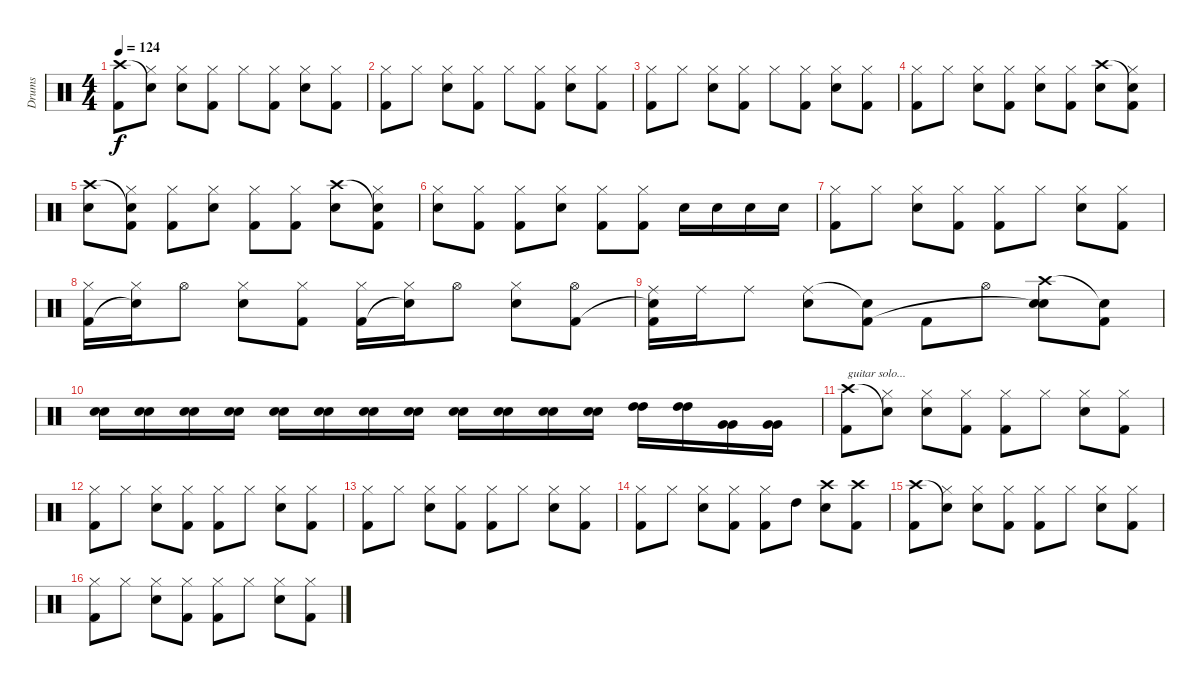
\track ("Drums" "Drums") {instrument percussion}
\staff {score}
\articulation defaults
\ts (4 4)
\tempo 124
\clef neutral
\ks c
("Crash high (hit)" "Kick (hit) 2").8{dy f} ("Snare (hit)"{t} "Hi-Hat (closed)").8 ("Hi-Hat (closed)" "Snare (hit) 2").8 ("Hi-Hat (closed)" "Kick (hit) 2").8 "Hi-Hat (closed)".8 ("Hi-Hat (closed)" "Kick (hit) 2").8 ("Hi-Hat (closed)" "Snare (hit) 2").8 ("Hi-Hat (closed)" "Kick (hit) 2").8 |
("Hi-Hat (closed)" "Kick (hit) 2").8 "Hi-Hat (closed)".8 ("Hi-Hat (closed)" "Snare (hit) 2").8 ("Hi-Hat (closed)" "Kick (hit) 2").8 "Hi-Hat (closed)".8 ("Hi-Hat (closed)" "Kick (hit) 2").8 ("Hi-Hat (closed)" "Snare (hit) 2").8 ("Hi-Hat (closed)" "Kick (hit) 2").8 |
("Hi-Hat (closed)" "Kick (hit) 2").8 "Hi-Hat (closed)".8 ("Hi-Hat (closed)" "Snare (hit) 2").8 ("Hi-Hat (closed)" "Kick (hit) 2").8 "Hi-Hat (closed)".8 ("Hi-Hat (closed)" "Kick (hit) 2").8 ("Hi-Hat (closed)" "Snare (hit) 2").8 ("Hi-Hat (closed)" "Kick (hit) 2").8 |
("Hi-Hat (closed)" "Kick (hit) 2").8 "Hi-Hat (closed)".8 ("Hi-Hat (closed)" "Snare (hit) 2").8 ("Hi-Hat (closed)" "Kick (hit) 2").8 ("Hi-Hat (closed)" "Snare (hit) 2").8 ("Hi-Hat (closed)" "Kick (hit) 2").8 ("Crash high (hit)" "Snare (hit) 2").8 ("Snare (hit)"{t} "Hi-Hat (closed)" "Kick (hit) 2").8 |
("Crash high (hit)" "Snare (hit) 2").8 ("Snare (hit)"{t} "Hi-Hat (closed)" "Kick (hit) 2").8 ("Hi-Hat (closed)" "Kick (hit) 2").8 ("Hi-Hat (closed)" "Snare (hit) 2").8 ("Hi-Hat (closed)" "Kick (hit) 2").8 ("Hi-Hat (closed)" "Kick (hit) 2").8 ("Crash high (hit)" "Snare (hit) 2").8 ("Snare (hit)"{t} "Hi-Hat (closed)" "Kick (hit) 2").8 |
("Hi-Hat (closed)" "Snare (hit) 2").8 ("Hi-Hat (closed)" "Kick (hit) 2").8 ("Hi-Hat (closed)" "Kick (hit) 2").8 ("Hi-Hat (closed)" "Snare (hit) 2").8 ("Hi-Hat (closed)" "Kick (hit) 2").8 ("Hi-Hat (closed)" "Kick (hit) 2").8 "Snare (hit) 2".16 "Snare (hit) 2".16 "Snare (hit) 2".16 "Snare (hit) 2".16 |
("Hi-Hat (closed)" "Kick (hit) 2").8 "Hi-Hat (closed)".8 ("Hi-Hat (closed)" "Snare (hit) 2").8 ("Hi-Hat (closed)" "Kick (hit) 2").8 ("Hi-Hat (closed)" "Kick (hit) 2").8 "Hi-Hat (closed)".8 ("Hi-Hat (closed)" "Snare (hit) 2").8 ("Hi-Hat (closed)" "Kick (hit) 2").8 |
("Hi-Hat (closed)" "Kick (hit) 2").16 ("Hi-Hat (closed)" "Snare (hit)"{t}).16 "Hi-Hat (open)".8 ("Hi-Hat (closed)" "Snare (hit) 2").8 ("Hi-Hat (closed)" "Kick (hit) 2").8 ("Hi-Hat (closed)" "Kick (hit) 2").16 ("Hi-Hat (closed)" "Snare (hit)"{t}).16 "Hi-Hat (open)".8 ("Hi-Hat (closed)" "Snare (hit) 2").8 ("Hi-Hat (open)" "Kick (hit) 2").8 |
("Ride (middle)" "Snare (hit)"{t} "Kick (hit) 2").16 "Ride (middle)".16 "Ride (middle)".8 ("Ride (middle)" "Snare (hit) 2").8 ("Snare (hit)"{t} "Kick (hit) 2").8 "Kick (hit) 2".8 "Hi-Hat (open)".8 ("Crash high (hit)" "Snare (hit)"{t} "Snare (hit) 2").8 ("Snare (hit)"{t} "Kick (hit) 2").8 |
("Snare (hit) 2" "Snare (hit) 2").16 ("Snare (hit) 2" "Snare (hit) 2").16 ("Snare (hit) 2" "Snare (hit) 2").16 ("Snare (hit) 2" "Snare (hit) 2").16 ("Snare (hit) 2" "Snare (hit) 2").16 ("Snare (hit) 2" "Snare (hit) 2").16 ("Snare (hit) 2" "Snare (hit) 2").16 ("Snare (hit) 2" "Snare (hit) 2").16 ("Snare (hit) 2" "Snare (hit) 2").16 ("Snare (hit) 2" "Snare (hit) 2").16 ("Snare (hit) 2" "Snare (hit) 2").16 ("Snare (hit) 2" "Snare (hit) 2").16 ("High Tom (hit)" "High Tom (hit)").16 ("High Tom (hit)" "High Tom (hit)").16 ("Very Low Tom (hit)" "Very Low Tom (hit)").16 ("Very Low Tom (hit)" "Very Low Tom (hit)").16 |
("Crash high (hit)" "Kick (hit) 2").8{txt "guitar solo..."} ("Snare (hit)"{t} "Hi-Hat (closed)").8 ("Hi-Hat (closed)" "Snare (hit) 2").8 ("Hi-Hat (closed)" "Kick (hit) 2").8 ("Hi-Hat (closed)" "Kick (hit) 2").8 "Hi-Hat (closed)".8 ("Hi-Hat (closed)" "Snare (hit) 2").8 ("Hi-Hat (closed)" "Kick (hit) 2").8 |
("Hi-Hat (closed)" "Kick (hit) 2").8 "Hi-Hat (closed)".8 ("Hi-Hat (closed)" "Snare (hit) 2").8 ("Hi-Hat (closed)" "Kick (hit) 2").8 ("Hi-Hat (closed)" "Kick (hit) 2").8 "Hi-Hat (closed)".8 ("Hi-Hat (closed)" "Snare (hit) 2").8 ("Hi-Hat (closed)" "Kick (hit) 2").8 |
("Hi-Hat (closed)" "Kick (hit) 2").8 "Hi-Hat (closed)".8 ("Hi-Hat (closed)" "Snare (hit) 2").8 ("Hi-Hat (closed)" "Kick (hit) 2").8 ("Hi-Hat (closed)" "Kick (hit) 2").8 "Hi-Hat (closed)".8 ("Hi-Hat (closed)" "Snare (hit) 2").8 ("Hi-Hat (closed)" "Kick (hit) 2").8 |
("Hi-Hat (closed)" "Kick (hit) 2").8 "Hi-Hat (closed)".8 ("Hi-Hat (closed)" "Snare (hit) 2").8 ("Hi-Hat (closed)" "Kick (hit) 2").8 ("Hi-Hat (closed)" "Kick (hit) 2").8 "High Tom (hit)".8 ("Crash high (hit)" "Snare (hit) 2").8 ("Crash high (hit)" "Kick (hit) 2").8 |
("Crash high (hit)" "Kick (hit) 2").8 ("Snare (hit)"{t} "Hi-Hat (closed)").8 ("Hi-Hat (closed)" "Snare (hit) 2").8 ("Hi-Hat (closed)" "Kick (hit) 2").8 ("Hi-Hat (closed)" "Kick (hit) 2").8 "Hi-Hat (closed)".8 ("Hi-Hat (closed)" "Snare (hit) 2").8 ("Hi-Hat (closed)" "Kick (hit) 2").8 |
("Hi-Hat (closed)" "Kick (hit) 2").8 "Hi-Hat (closed)".8 ("Hi-Hat (closed)" "Snare (hit) 2").8 ("Hi-Hat (closed)" "Kick (hit) 2").8 ("Hi-Hat (closed)" "Kick (hit) 2").8 "Hi-Hat (closed)".8 ("Hi-Hat (closed)" "Snare (hit) 2").8 ("Hi-Hat (closed)" "Kick (hit) 2").8
